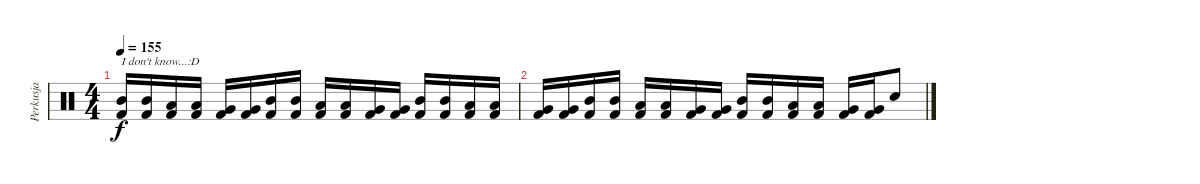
\track ("Perkusja" "Perkusja") {instrument percussion}
\staff {score}
\articulation defaults
\ts (4 4)
\tempo 155
\clef neutral
\ks c
("Mid Tom (hit)" "Kick (hit) 2").16{txt "I don't know...:D" dy f} ("Mid Tom (hit)" "Kick (hit) 2").16 ("Low Tom (hit)" "Kick (hit) 2").16 ("Low Tom (hit)" "Kick (hit) 2").16 ("Very Low Tom (hit)" "Kick (hit) 2").16 ("Very Low Tom (hit)" "Kick (hit) 2").16 ("Mid Tom (hit)" "Kick (hit) 2").16 ("Mid Tom (hit)" "Kick (hit) 2").16 ("Low Tom (hit)" "Kick (hit) 2").16 ("Low Tom (hit)" "Kick (hit) 2").16 ("Very Low Tom (hit)" "Kick (hit) 2").16 ("Very Low Tom (hit)" "Kick (hit) 2").16 ("Mid Tom (hit)" "Kick (hit) 2").16 ("Mid Tom (hit)" "Kick (hit) 2").16 ("Low Tom (hit)" "Kick (hit) 2").16 ("Low Tom (hit)" "Kick (hit) 2").16 |
("Very Low Tom (hit)" "Kick (hit) 2").16 ("Very Low Tom (hit)" "Kick (hit) 2").16 ("Mid Tom (hit)" "Kick (hit) 2").16 ("Mid Tom (hit)" "Kick (hit) 2").16 ("Low Tom (hit)" "Kick (hit) 2").16 ("Low Tom (hit)" "Kick (hit) 2").16 ("Very Low Tom (hit)" "Kick (hit) 2").16 ("Very Low Tom (hit)" "Kick (hit) 2").16 ("Mid Tom (hit)" "Kick (hit) 2").16 ("Mid Tom (hit)" "Kick (hit) 2").16 ("Low Tom (hit)" "Kick (hit) 2").16 ("Low Tom (hit)" "Kick (hit) 2").16 ("Very Low Tom (hit)" "Kick (hit) 2").16 ("Very Low Tom (hit)" "Kick (hit) 2").16 "Snare (hit) 2".8
